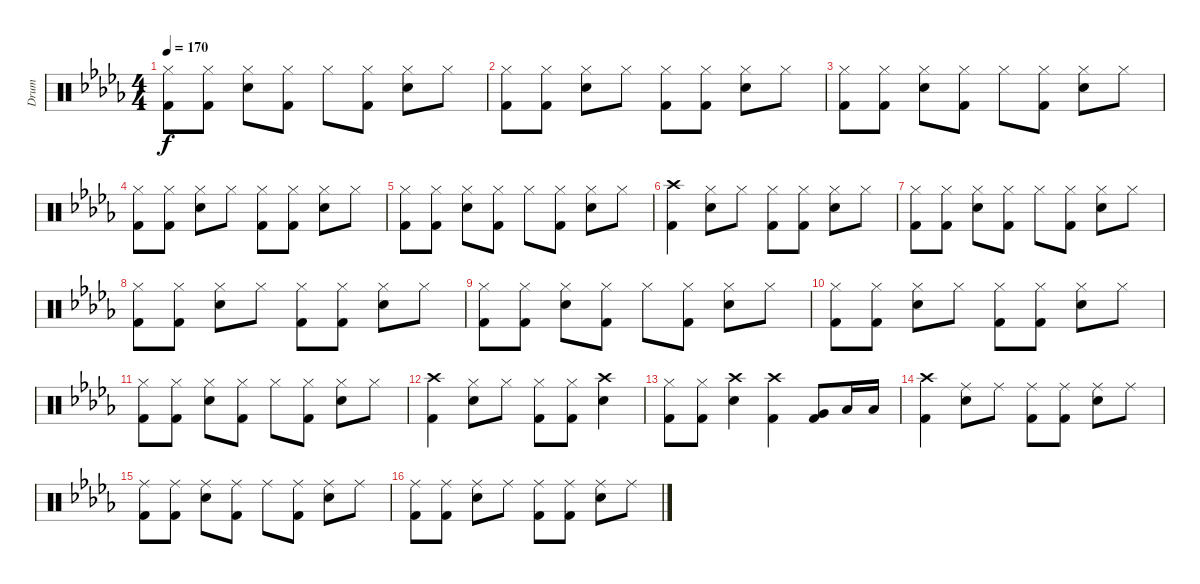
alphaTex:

\track ("Drum" "Drum") {instrument percussion}
\staff {score}
\articulation defaults
\ts (4 4)
\tempo 170
\clef neutral
\ks db
("Hi-Hat (closed)" "Kick (hit) 2").8{dy f} ("Hi-Hat (closed)" "Kick (hit) 2").8 ("Hi-Hat (closed)" "Electric Snare (hit)").8 ("Hi-Hat (closed)" "Kick (hit) 2").8 "Hi-Hat (closed)".8 ("Hi-Hat (closed)" "Kick (hit) 2").8 ("Hi-Hat (closed)" "Electric Snare (hit)").8 "Hi-Hat (closed)".8 |
("Hi-Hat (closed)" "Kick (hit) 2").8 ("Hi-Hat (closed)" "Kick (hit) 2").8 ("Hi-Hat (closed)" "Electric Snare (hit)").8 "Hi-Hat (closed)".8 ("Hi-Hat (closed)" "Kick (hit) 2").8 ("Hi-Hat (closed)" "Kick (hit) 2").8 ("Hi-Hat (closed)" "Electric Snare (hit)").8 "Hi-Hat (closed)".8 |
("Hi-Hat (closed)" "Kick (hit) 2").8 ("Hi-Hat (closed)" "Kick (hit) 2").8 ("Hi-Hat (closed)" "Electric Snare (hit)").8 ("Hi-Hat (closed)" "Kick (hit) 2").8 "Hi-Hat (closed)".8 ("Hi-Hat (closed)" "Kick (hit) 2").8 ("Hi-Hat (closed)" "Electric Snare (hit)").8 "Hi-Hat (closed)".8 |
("Hi-Hat (closed)" "Kick (hit) 2").8 ("Hi-Hat (closed)" "Kick (hit) 2").8 ("Hi-Hat (closed)" "Electric Snare (hit)").8 "Hi-Hat (closed)".8 ("Hi-Hat (closed)" "Kick (hit) 2").8 ("Hi-Hat (closed)" "Kick (hit) 2").8 ("Hi-Hat (closed)" "Electric Snare (hit)").8 "Hi-Hat (closed)".8 |
("Hi-Hat (closed)" "Kick (hit) 2").8 ("Hi-Hat (closed)" "Kick (hit) 2").8 ("Hi-Hat (closed)" "Electric Snare (hit)").8 ("Hi-Hat (closed)" "Kick (hit) 2").8 "Hi-Hat (closed)".8 ("Hi-Hat (closed)" "Kick (hit) 2").8 ("Hi-Hat (closed)" "Electric Snare (hit)").8 "Hi-Hat (closed)".8 |
("Crash high (hit)" "Kick (hit) 2").4 ("Hi-Hat (closed)" "Electric Snare (hit)").8 "Hi-Hat (closed)".8 ("Hi-Hat (closed)" "Kick (hit) 2").8 ("Hi-Hat (closed)" "Kick (hit) 2").8 ("Hi-Hat (closed)" "Electric Snare (hit)").8 "Hi-Hat (closed)".8 |
("Hi-Hat (closed)" "Kick (hit) 2").8 ("Hi-Hat (closed)" "Kick (hit) 2").8 ("Hi-Hat (closed)" "Electric Snare (hit)").8 ("Hi-Hat (closed)" "Kick (hit) 2").8 "Hi-Hat (closed)".8 ("Hi-Hat (closed)" "Kick (hit) 2").8 ("Hi-Hat (closed)" "Electric Snare (hit)").8 "Hi-Hat (closed)".8 |
("Hi-Hat (closed)" "Kick (hit) 2").8 ("Hi-Hat (closed)" "Kick (hit) 2").8 ("Hi-Hat (closed)" "Electric Snare (hit)").8 "Hi-Hat (closed)".8 ("Hi-Hat (closed)" "Kick (hit) 2").8 ("Hi-Hat (closed)" "Kick (hit) 2").8 ("Hi-Hat (closed)" "Electric Snare (hit)").8 "Hi-Hat (closed)".8 |
("Hi-Hat (closed)" "Kick (hit) 2").8 ("Hi-Hat (closed)" "Kick (hit) 2").8 ("Hi-Hat (closed)" "Electric Snare (hit)").8 ("Hi-Hat (closed)" "Kick (hit) 2").8 "Hi-Hat (closed)".8 ("Hi-Hat (closed)" "Kick (hit) 2").8 ("Hi-Hat (closed)" "Electric Snare (hit)").8 "Hi-Hat (closed)".8 |
("Hi-Hat (closed)" "Kick (hit) 2").8 ("Hi-Hat (closed)" "Kick (hit) 2").8 ("Hi-Hat (closed)" "Electric Snare (hit)").8 "Hi-Hat (closed)".8 ("Hi-Hat (closed)" "Kick (hit) 2").8 ("Hi-Hat (closed)" "Kick (hit) 2").8 ("Hi-Hat (closed)" "Electric Snare (hit)").8 "Hi-Hat (closed)".8 |
("Hi-Hat (closed)" "Kick (hit) 2").8 ("Hi-Hat (closed)" "Kick (hit) 2").8 ("Hi-Hat (closed)" "Electric Snare (hit)").8 ("Hi-Hat (closed)" "Kick (hit) 2").8 "Hi-Hat (closed)".8 ("Hi-Hat (closed)" "Kick (hit) 2").8 ("Hi-Hat (closed)" "Electric Snare (hit)").8 "Hi-Hat (closed)".8 |
("Crash high (hit)" "Kick (hit) 2").4 ("Hi-Hat (closed)" "Electric Snare (hit)").8 "Hi-Hat (closed)".8 ("Hi-Hat (closed)" "Kick (hit) 2").8 ("Hi-Hat (closed)" "Kick (hit) 2").8 ("Crash high (hit)" "Electric Snare (hit)").4 |
("Hi-Hat (closed)" "Kick (hit) 2").8 ("Hi-Hat (closed)" "Kick (hit) 2").8 ("Crash high (hit)" "Electric Snare (hit)").4 ("Crash high (hit)" "Kick (hit) 2").4 ("Very Low Tom (hit)" "Kick (hit) 2").8 "Low Floor Tom (hit)".16 "Low Floor Tom (hit)".16 |
("Crash high (hit)" "Kick (hit) 2").4 ("Ride (middle)" "Electric Snare (hit)").8 "Ride (middle)".8 ("Ride (middle)" "Kick (hit) 2").8 ("Ride (middle)" "Kick (hit) 2").8 ("Ride (middle)" "Electric Snare (hit)").8 "Ride (middle)".8 |
("Ride (middle)" "Kick (hit) 2").8 ("Ride (middle)" "Kick (hit) 2").8 ("Ride (middle)" "Electric Snare (hit)").8 ("Ride (middle)" "Kick (hit) 2").8 "Ride (middle)".8 ("Ride (middle)" "Kick (hit) 2").8 ("Ride (middle)" "Electric Snare (hit)").8 "Ride (middle)".8 |
("Ride (middle)" "Kick (hit) 2").8 ("Ride (middle)" "Kick (hit) 2").8 ("Ride (middle)" "Electric Snare (hit)").8 "Ride (middle)".8 ("Ride (middle)" "Kick (hit) 2").8 ("Ride (middle)" "Kick (hit) 2").8 ("Ride (middle)" "Electric Snare (hit)").8 "Ride (middle)".8
